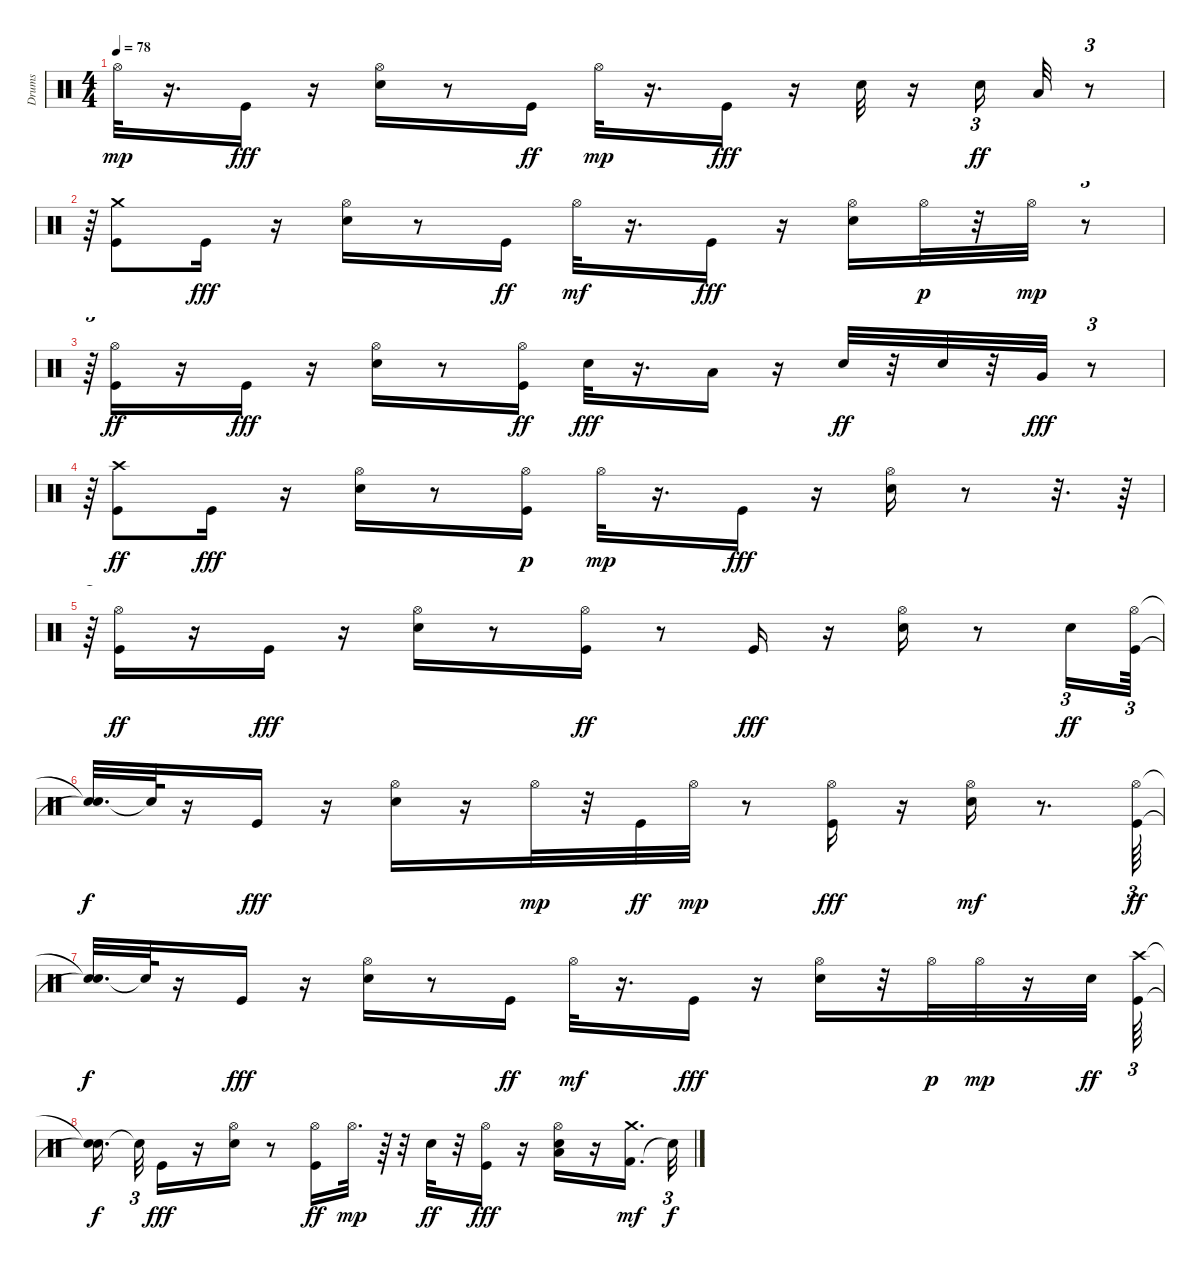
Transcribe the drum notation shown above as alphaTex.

\track ("Drums" "Drums") {instrument percussion}
\staff {score}
\articulation defaults
\ts (4 4)
\tempo 78
\clef neutral
\ks c "Hi-Hat (open)".32{dy mp}
r.16{d} "Kick (hit)".16{dy fff} r.16 ("Hi-Hat (open)" "Electric Snare (hit)").16 r.8 "Kick (hit)".16{dy ff} "Hi-Hat (open)".32{dy mp} r.16{d} "Kick (hit)".16{dy fff} r.16 "Electric Snare (hit)".32 r.16 "Electric Snare (hit)".16{tu (3 2) dy ff} "Low Tom (hit)".32 r.8{tu (3 2)} |
r.64{tu (3 2)} ("Crash medium (hit)" "Kick (hit)").8 "Kick (hit)".16{dy fff} r.16 ("Electric Snare (hit)" "Hi-Hat (open)").16 r.8 "Kick (hit)".16{dy ff} "Hi-Hat (open)".32{dy mf} r.16{d} "Kick (hit)".16{dy fff} r.16 ("Hi-Hat (open)" "Electric Snare (hit)").16 "Hi-Hat (open)".32{dy p} r.32 "Hi-Hat (open)".32{dy mp} r.8{tu (3 2)} |
r.64{tu (3 2)} ("Hi-Hat (open)" "Kick (hit)").16{dy ff} r.16 "Kick (hit)".16{dy fff} r.16 ("Hi-Hat (open)" "Electric Snare (hit)").16 r.8 ("Hi-Hat (open)" "Kick (hit)").16{dy ff} "Electric Snare (hit)".32{dy fff} r.16{d} "Low Tom (hit)".16 r.16 "Electric Snare (hit)".32{dy ff} r.32 "Electric Snare (hit)".32 r.32 "Very Low Tom (hit)".32{dy fff} r.8{tu (3 2)} |
r.64{tu (3 2)} ("Crash high (hit)" "Kick (hit)").8{dy ff} "Kick (hit)".16{dy fff} r.16 ("Hi-Hat (open)" "Electric Snare (hit)").16 r.8 ("Kick (hit)" "Hi-Hat (open)").16{dy p} "Hi-Hat (open)".32{dy mp} r.16{d} "Kick (hit)".16{dy fff} r.16 ("Hi-Hat (open)" "Electric Snare (hit)").16 r.8 r.32{d} r.64 |
r.64{tu (3 2)} ("Hi-Hat (open)" "Kick (hit)").16{dy ff} r.16 "Kick (hit)".16{dy fff} r.16 ("Hi-Hat (open)" "Electric Snare (hit)").16 r.8 ("Hi-Hat (open)" "Kick (hit)").16{dy ff} r.8 "Kick (hit)".16{dy fff} r.16 ("Hi-Hat (open)" "Electric Snare (hit)").16 r.8 "Electric Snare (hit)".16{tu (3 2) dy ff} ("Hi-Hat (open)" "Kick (hit)").64{tu (3 2)} |
("Snare (hit)"{t} "Snare (hit)"{t}).32{d dy f} "Snare (hit)"{t}.64 r.16 "Kick (hit)".16{dy fff} r.16 ("Hi-Hat (open)" "Electric Snare (hit)").16 r.16 "Hi-Hat (open)".32{dy mp} r.32 "Kick (hit)".32{dy ff} "Hi-Hat (open)".32{dy mp} r.8 ("Hi-Hat (open)" "Kick (hit)").16{dy fff} r.16 ("Electric Snare (hit)" "Hi-Hat (open)").16{dy mf} r.8{d} ("Hi-Hat (open)" "Kick (hit)").64{tu (3 2) dy ff} |
("Snare (hit)"{t} "Snare (hit)"{t}).32{d dy f} "Snare (hit)"{t}.64 r.16 "Kick (hit)".16{dy fff} r.16 ("Electric Snare (hit)" "Hi-Hat (open)").16 r.8 "Kick (hit)".16{dy ff} "Hi-Hat (open)".32{dy mf} r.16{d} "Kick (hit)".16{dy fff} r.16 ("Hi-Hat (open)" "Electric Snare (hit)").16 r.32 "Hi-Hat (open)".32{dy p} "Hi-Hat (open)".32{dy mp} r.16 "Electric Snare (hit)".32{dy ff} ("Crash high (hit)" "Kick (hit)").64{tu (3 2)} |
("Snare (hit)"{t} "Snare (hit)"{t}).16{d dy f} "Snare (hit)"{t}.32{tu (3 2)} "Kick (hit)".16{dy fff} r.16 ("Hi-Hat (open)" "Electric Snare (hit)").16 r.8 ("Hi-Hat (open)" "Kick (hit)").16{dy ff} "Hi-Hat (open)".32{d dy mp} r.64 r.32 "Electric Snare (hit)".32{dy ff} r.32 ("Hi-Hat (open)" "Kick (hit)").16{dy fff} r.16 ("Low Floor Tom (hit)" "Hi-Hat (open)" "Electric Snare (hit)").16 r.16 ("Kick (hit) 2" "Crash medium (hit)").16{d dy mf} "Snare (hit)"{t}.32{tu (3 2) dy f}
